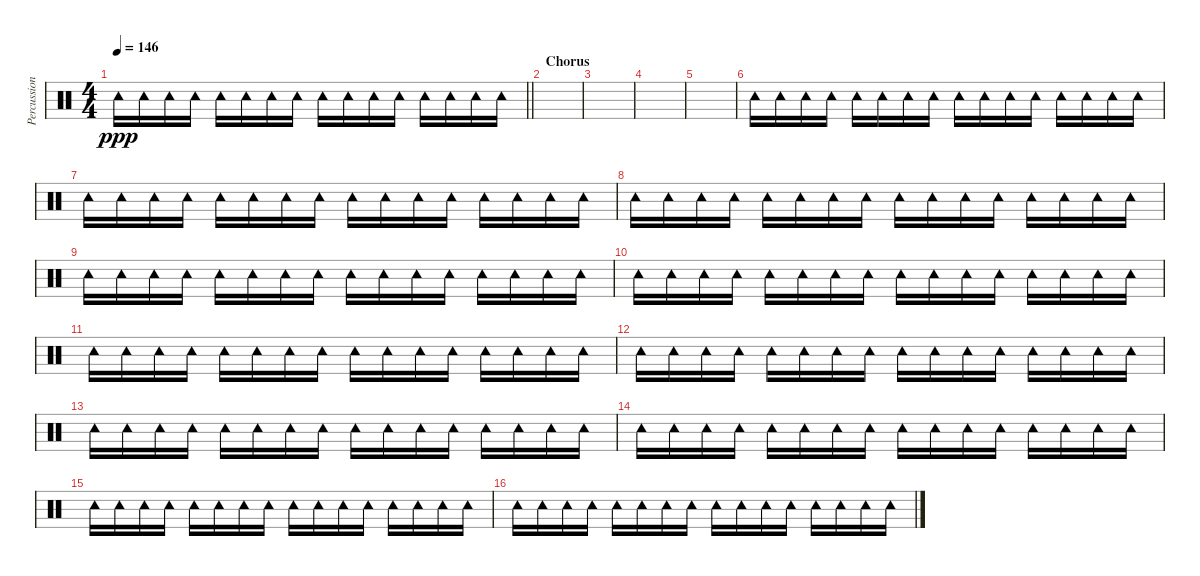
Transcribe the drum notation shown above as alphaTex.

\track ("Percussion" "Percussion") {instrument percussion}
\staff {score}
\articulation defaults
\ts (4 4)
\tempo 146
\clef neutral
\barLineRight lightlight
\ks c "Tambourine (hit)".16{dy ppp} "Tambourine (hit)".16 "Tambourine (hit)".16 "Tambourine (hit)".16 "Tambourine (hit)".16 "Tambourine (hit)".16 "Tambourine (hit)".16 "Tambourine (hit)".16 "Tambourine (hit)".16 "Tambourine (hit)".16 "Tambourine (hit)".16 "Tambourine (hit)".16 "Tambourine (hit)".16 "Tambourine (hit)".16 "Tambourine (hit)".16 "Tambourine (hit)".16
|
\section ("" "Chorus")
|
|
|
|
"Tambourine (hit)".16 "Tambourine (hit)".16 "Tambourine (hit)".16 "Tambourine (hit)".16 "Tambourine (hit)".16 "Tambourine (hit)".16 "Tambourine (hit)".16 "Tambourine (hit)".16 "Tambourine (hit)".16 "Tambourine (hit)".16 "Tambourine (hit)".16 "Tambourine (hit)".16 "Tambourine (hit)".16 "Tambourine (hit)".16 "Tambourine (hit)".16 "Tambourine (hit)".16 |
"Tambourine (hit)".16 "Tambourine (hit)".16 "Tambourine (hit)".16 "Tambourine (hit)".16 "Tambourine (hit)".16 "Tambourine (hit)".16 "Tambourine (hit)".16 "Tambourine (hit)".16 "Tambourine (hit)".16 "Tambourine (hit)".16 "Tambourine (hit)".16 "Tambourine (hit)".16 "Tambourine (hit)".16 "Tambourine (hit)".16 "Tambourine (hit)".16 "Tambourine (hit)".16 |
"Tambourine (hit)".16 "Tambourine (hit)".16 "Tambourine (hit)".16 "Tambourine (hit)".16 "Tambourine (hit)".16 "Tambourine (hit)".16 "Tambourine (hit)".16 "Tambourine (hit)".16 "Tambourine (hit)".16 "Tambourine (hit)".16 "Tambourine (hit)".16 "Tambourine (hit)".16 "Tambourine (hit)".16 "Tambourine (hit)".16 "Tambourine (hit)".16 "Tambourine (hit)".16 |
"Tambourine (hit)".16 "Tambourine (hit)".16 "Tambourine (hit)".16 "Tambourine (hit)".16 "Tambourine (hit)".16 "Tambourine (hit)".16 "Tambourine (hit)".16 "Tambourine (hit)".16 "Tambourine (hit)".16 "Tambourine (hit)".16 "Tambourine (hit)".16 "Tambourine (hit)".16 "Tambourine (hit)".16 "Tambourine (hit)".16 "Tambourine (hit)".16 "Tambourine (hit)".16 |
"Tambourine (hit)".16 "Tambourine (hit)".16 "Tambourine (hit)".16 "Tambourine (hit)".16 "Tambourine (hit)".16 "Tambourine (hit)".16 "Tambourine (hit)".16 "Tambourine (hit)".16 "Tambourine (hit)".16 "Tambourine (hit)".16 "Tambourine (hit)".16 "Tambourine (hit)".16 "Tambourine (hit)".16 "Tambourine (hit)".16 "Tambourine (hit)".16 "Tambourine (hit)".16 |
"Tambourine (hit)".16 "Tambourine (hit)".16 "Tambourine (hit)".16 "Tambourine (hit)".16 "Tambourine (hit)".16 "Tambourine (hit)".16 "Tambourine (hit)".16 "Tambourine (hit)".16 "Tambourine (hit)".16 "Tambourine (hit)".16 "Tambourine (hit)".16 "Tambourine (hit)".16 "Tambourine (hit)".16 "Tambourine (hit)".16 "Tambourine (hit)".16 "Tambourine (hit)".16 |
"Tambourine (hit)".16 "Tambourine (hit)".16 "Tambourine (hit)".16 "Tambourine (hit)".16 "Tambourine (hit)".16 "Tambourine (hit)".16 "Tambourine (hit)".16 "Tambourine (hit)".16 "Tambourine (hit)".16 "Tambourine (hit)".16 "Tambourine (hit)".16 "Tambourine (hit)".16 "Tambourine (hit)".16 "Tambourine (hit)".16 "Tambourine (hit)".16 "Tambourine (hit)".16 |
"Tambourine (hit)".16 "Tambourine (hit)".16 "Tambourine (hit)".16 "Tambourine (hit)".16 "Tambourine (hit)".16 "Tambourine (hit)".16 "Tambourine (hit)".16 "Tambourine (hit)".16 "Tambourine (hit)".16 "Tambourine (hit)".16 "Tambourine (hit)".16 "Tambourine (hit)".16 "Tambourine (hit)".16 "Tambourine (hit)".16 "Tambourine (hit)".16 "Tambourine (hit)".16 |
"Tambourine (hit)".16 "Tambourine (hit)".16 "Tambourine (hit)".16 "Tambourine (hit)".16 "Tambourine (hit)".16 "Tambourine (hit)".16 "Tambourine (hit)".16 "Tambourine (hit)".16 "Tambourine (hit)".16 "Tambourine (hit)".16 "Tambourine (hit)".16 "Tambourine (hit)".16 "Tambourine (hit)".16 "Tambourine (hit)".16 "Tambourine (hit)".16 "Tambourine (hit)".16 |
"Tambourine (hit)".16 "Tambourine (hit)".16 "Tambourine (hit)".16 "Tambourine (hit)".16 "Tambourine (hit)".16 "Tambourine (hit)".16 "Tambourine (hit)".16 "Tambourine (hit)".16 "Tambourine (hit)".16 "Tambourine (hit)".16 "Tambourine (hit)".16 "Tambourine (hit)".16 "Tambourine (hit)".16 "Tambourine (hit)".16 "Tambourine (hit)".16 "Tambourine (hit)".16 |
"Tambourine (hit)".16 "Tambourine (hit)".16 "Tambourine (hit)".16 "Tambourine (hit)".16 "Tambourine (hit)".16 "Tambourine (hit)".16 "Tambourine (hit)".16 "Tambourine (hit)".16 "Tambourine (hit)".16 "Tambourine (hit)".16 "Tambourine (hit)".16 "Tambourine (hit)".16 "Tambourine (hit)".16 "Tambourine (hit)".16 "Tambourine (hit)".16 "Tambourine (hit)".16
